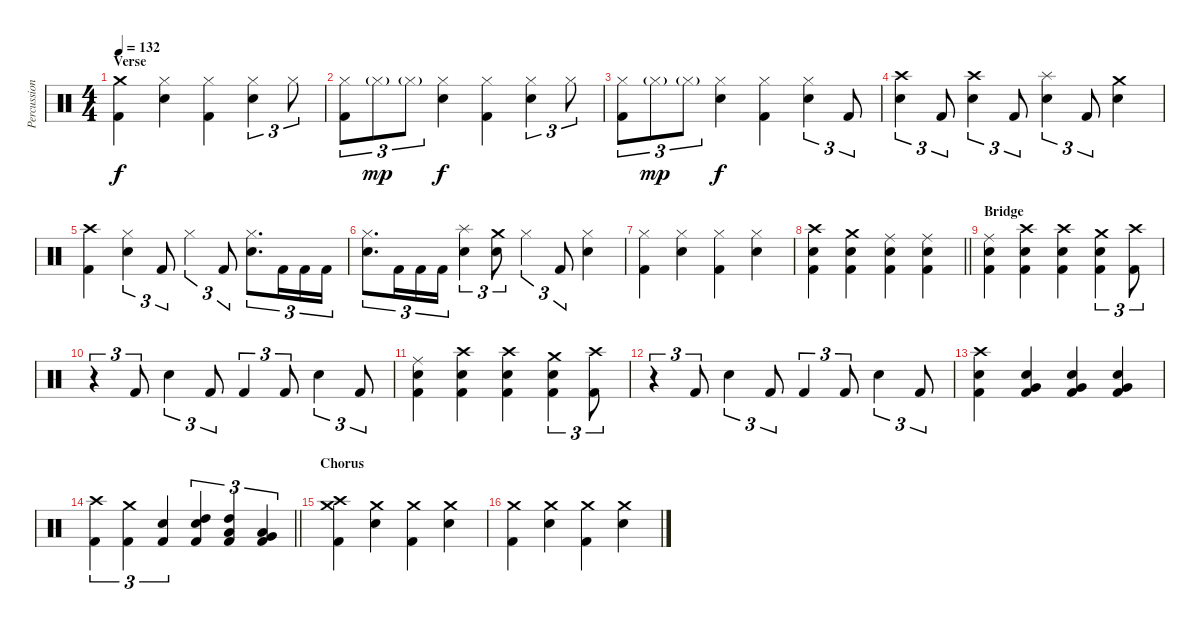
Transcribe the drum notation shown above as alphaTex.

\track ("Percussion" "Percussion") {instrument percussion}
\staff {score}
\articulation defaults
\ts (4 4)
\section ("" "Verse")
\tempo 132
\clef neutral
\ks c
("Crash medium (hit)" "Kick (hit) 2").4{dy f} ("Hi-Hat (closed)" "Snare (hit) 2").4 ("Hi-Hat (closed)" "Kick (hit) 2").4 ("Hi-Hat (closed)" "Snare (hit) 2").4{tu (3 2)} "Hi-Hat (closed)".8{tu (3 2)} |
("Hi-Hat (closed)" "Kick (hit) 2").8{tu (3 2)} "Hi-Hat (closed)"{g}.8{tu (3 2) dy mp} "Hi-Hat (closed)"{g}.8{tu (3 2)} ("Hi-Hat (closed)" "Snare (hit) 2").4{dy f} ("Hi-Hat (closed)" "Kick (hit) 2").4 ("Hi-Hat (closed)" "Snare (hit) 2").4{tu (3 2)} "Hi-Hat (closed)".8{tu (3 2)} |
("Hi-Hat (closed)" "Kick (hit) 2").8{tu (3 2)} "Hi-Hat (closed)"{g}.8{tu (3 2) dy mp} "Hi-Hat (closed)"{g}.8{tu (3 2)} ("Hi-Hat (closed)" "Snare (hit) 2").4{dy f} ("Hi-Hat (closed)" "Kick (hit) 2").4 ("Hi-Hat (closed)" "Snare (hit) 2").4{tu (3 2)} "Kick (hit) 2".8{tu (3 2)} |
("Crash high (hit)" "Snare (hit) 2").4{tu (3 2)} "Kick (hit) 2".8{tu (3 2)} ("Crash high (hit)" "Snare (hit) 2").4{tu (3 2)} "Kick (hit) 2".8{tu (3 2)} ("Splash (hit)" "Snare (hit) 2").4{tu (3 2)} "Kick (hit) 2".8{tu (3 2)} ("Crash medium (hit)" "Snare (hit) 2").4 |
("Crash high (hit)" "Kick (hit) 2").4 ("Hi-Hat (closed)" "Snare (hit) 2").4{tu (3 2)} "Kick (hit) 2".8{tu (3 2)} "Hi-Hat (closed)".4{tu (3 2)} "Kick (hit) 2".8{tu (3 2)} ("Hi-Hat (closed)" "Snare (hit) 2").8{d tu (3 2)} "Kick (hit) 2".16{tu (3 2)} "Kick (hit) 2".16{tu (3 2)} "Kick (hit) 2".16{tu (3 2)} |
("Hi-Hat (closed)" "Snare (hit) 2").8{d tu (3 2)} "Kick (hit) 2".16{tu (3 2)} "Kick (hit) 2".16{tu (3 2)} "Kick (hit) 2".16{tu (3 2)} ("Splash (hit)" "Snare (hit) 2").4{tu (3 2)} ("Crash medium (hit)" "Snare (hit) 2").8{tu (3 2)} "Hi-Hat (closed)".4{tu (3 2)} "Kick (hit) 2".8{tu (3 2)} ("Hi-Hat (closed)" "Snare (hit) 2").4 |
("Hi-Hat (closed)" "Kick (hit) 2").4 ("Hi-Hat (closed)" "Snare (hit) 2").4 ("Hi-Hat (closed)" "Kick (hit) 2").4 ("Hi-Hat (closed)" "Snare (hit) 2").4 |
\barLineRight lightlight
("Crash high (hit)" "Snare (hit) 2" "Kick (hit) 2").4 ("Crash medium (hit)" "Snare (hit) 2" "Kick (hit) 2").4 ("Ride (middle)" "Snare (hit) 2" "Kick (hit) 2").4 ("Ride (middle)" "Snare (hit) 2" "Kick (hit) 2").4 |
\section ("" "Bridge")
("Ride (middle)" "Snare (hit) 2" "Kick (hit) 2").4 ("Crash high (hit)" "Snare (hit) 2" "Kick (hit) 2").4 ("Crash high (hit)" "Snare (hit) 2" "Kick (hit) 2").4 ("Crash medium (hit)" "Snare (hit) 2" "Kick (hit) 2").4{tu (3 2)} ("Crash high (hit)" "Kick (hit) 2").8{tu (3 2)} |
r.4{tu (3 2)} "Kick (hit) 2".8{tu (3 2)} "Snare (hit) 2".4{tu (3 2)} "Kick (hit) 2".8{tu (3 2)} "Kick (hit) 2".4{tu (3 2)} "Kick (hit) 2".8{tu (3 2)} "Snare (hit) 2".4{tu (3 2)} "Kick (hit) 2".8{tu (3 2)} |
("Ride (middle)" "Snare (hit) 2" "Kick (hit) 2").4 ("Crash high (hit)" "Snare (hit) 2" "Kick (hit) 2").4 ("Crash high (hit)" "Snare (hit) 2" "Kick (hit) 2").4 ("Crash medium (hit)" "Snare (hit) 2" "Kick (hit) 2").4{tu (3 2)} ("Crash high (hit)" "Kick (hit) 2").8{tu (3 2)} |
r.4{tu (3 2)} "Kick (hit) 2".8{tu (3 2)} "Snare (hit) 2".4{tu (3 2)} "Kick (hit) 2".8{tu (3 2)} "Kick (hit) 2".4{tu (3 2)} "Kick (hit) 2".8{tu (3 2)} "Snare (hit) 2".4{tu (3 2)} "Kick (hit) 2".8{tu (3 2)} |
("Crash high (hit)" "Snare (hit) 2" "Kick (hit) 2").4 ("Very Low Tom (hit)" "Snare (hit) 2" "Kick (hit) 2").4 ("Very Low Tom (hit)" "Snare (hit) 2" "Kick (hit) 2").4 ("Very Low Tom (hit)" "Snare (hit) 2" "Kick (hit) 2").4 |
\barLineRight lightlight
("Crash high (hit)" "Kick (hit) 2").4{tu (3 2)} ("Crash medium (hit)" "Kick (hit) 2").4{tu (3 2)} ("Snare (hit) 2" "Kick (hit) 2").4{tu (3 2)} ("High Tom (hit)" "Snare (hit) 2" "Kick (hit) 2").4{tu (3 2)} ("Low Tom (hit)" "High Tom (hit)" "Kick (hit) 2").4{tu (3 2)} ("Very Low Tom (hit)" "Low Tom (hit)" "Kick (hit) 2").4{tu (3 2)} |
\section ("" "Chorus")
("Crash high (hit)" "Crash medium (hit)" "Kick (hit) 2").4 ("Crash medium (hit)" "Snare (hit) 2").4 ("Crash medium (hit)" "Kick (hit) 2").4 ("Crash medium (hit)" "Snare (hit) 2").4 |
("Crash medium (hit)" "Kick (hit) 2").4 ("Crash medium (hit)" "Snare (hit) 2").4 ("Crash medium (hit)" "Kick (hit) 2").4 ("Crash medium (hit)" "Snare (hit) 2").4
